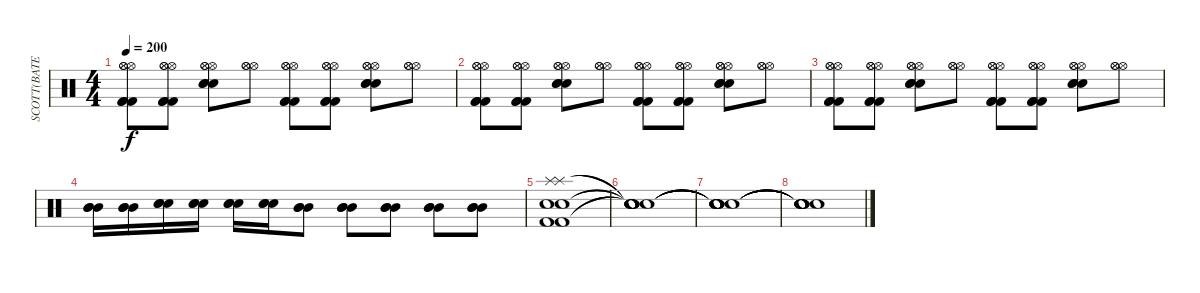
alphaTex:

\track ("SCOTT(BATERIA)" "SCOTT(BATE") {instrument percussion}
\staff {score}
\articulation defaults
\ts (4 4)
\tempo 200
\clef neutral
\ks c
("Kick (hit) 2" "Kick (hit) 2" "Kick (hit) 2" "Hi-Hat (open)" "Hi-Hat (open)" "Hi-Hat (open)").8{dy f} ("Kick (hit) 2" "Kick (hit) 2" "Kick (hit) 2" "Hi-Hat (open)" "Hi-Hat (open)" "Hi-Hat (open)").8 ("Snare (hit) 2" "Snare (hit) 2" "Snare (hit) 2" "Hi-Hat (open)" "Hi-Hat (open)" "Hi-Hat (open)").8 ("Hi-Hat (open)" "Hi-Hat (open)" "Hi-Hat (open)").8 ("Kick (hit) 2" "Kick (hit) 2" "Kick (hit) 2" "Hi-Hat (open)" "Hi-Hat (open)" "Hi-Hat (open)").8 ("Kick (hit) 2" "Kick (hit) 2" "Kick (hit) 2" "Hi-Hat (open)" "Hi-Hat (open)" "Hi-Hat (open)").8 ("Snare (hit) 2" "Snare (hit) 2" "Snare (hit) 2" "Hi-Hat (open)" "Hi-Hat (open)" "Hi-Hat (open)").8 ("Hi-Hat (open)" "Hi-Hat (open)" "Hi-Hat (open)").8 |
("Kick (hit) 2" "Kick (hit) 2" "Kick (hit) 2" "Hi-Hat (open)" "Hi-Hat (open)" "Hi-Hat (open)").8 ("Kick (hit) 2" "Kick (hit) 2" "Kick (hit) 2" "Hi-Hat (open)" "Hi-Hat (open)" "Hi-Hat (open)").8 ("Snare (hit) 2" "Snare (hit) 2" "Snare (hit) 2" "Hi-Hat (open)" "Hi-Hat (open)" "Hi-Hat (open)").8 ("Hi-Hat (open)" "Hi-Hat (open)" "Hi-Hat (open)").8 ("Kick (hit) 2" "Kick (hit) 2" "Kick (hit) 2" "Hi-Hat (open)" "Hi-Hat (open)" "Hi-Hat (open)").8 ("Kick (hit) 2" "Kick (hit) 2" "Kick (hit) 2" "Hi-Hat (open)" "Hi-Hat (open)" "Hi-Hat (open)").8 ("Snare (hit) 2" "Snare (hit) 2" "Snare (hit) 2" "Hi-Hat (open)" "Hi-Hat (open)" "Hi-Hat (open)").8 ("Hi-Hat (open)" "Hi-Hat (open)" "Hi-Hat (open)").8 |
("Kick (hit) 2" "Kick (hit) 2" "Kick (hit) 2" "Hi-Hat (open)" "Hi-Hat (open)" "Hi-Hat (open)").8 ("Kick (hit) 2" "Kick (hit) 2" "Kick (hit) 2" "Hi-Hat (open)" "Hi-Hat (open)" "Hi-Hat (open)").8 ("Snare (hit) 2" "Snare (hit) 2" "Snare (hit) 2" "Hi-Hat (open)" "Hi-Hat (open)" "Hi-Hat (open)").8 ("Hi-Hat (open)" "Hi-Hat (open)" "Hi-Hat (open)").8 ("Kick (hit) 2" "Kick (hit) 2" "Kick (hit) 2" "Hi-Hat (open)" "Hi-Hat (open)" "Hi-Hat (open)").8 ("Kick (hit) 2" "Kick (hit) 2" "Kick (hit) 2" "Hi-Hat (open)" "Hi-Hat (open)" "Hi-Hat (open)").8 ("Snare (hit) 2" "Snare (hit) 2" "Snare (hit) 2" "Hi-Hat (open)" "Hi-Hat (open)" "Hi-Hat (open)").8 ("Hi-Hat (open)" "Hi-Hat (open)" "Hi-Hat (open)").8 |
("Mid Tom (hit)" "Mid Tom (hit)" "Mid Tom (hit)").16 ("Mid Tom (hit)" "Mid Tom (hit)" "Mid Tom (hit)").16 ("Snare (hit) 2" "Snare (hit) 2" "Snare (hit) 2").16 ("Snare (hit) 2" "Snare (hit) 2" "Snare (hit) 2").16 ("Snare (hit) 2" "Snare (hit) 2" "Snare (hit) 2").16 ("Snare (hit) 2" "Snare (hit) 2" "Snare (hit) 2").16 ("Mid Tom (hit)" "Mid Tom (hit)" "Mid Tom (hit)").8 ("Mid Tom (hit)" "Mid Tom (hit)" "Mid Tom (hit)").8 ("Mid Tom (hit)" "Mid Tom (hit)" "Mid Tom (hit)").8 ("Mid Tom (hit)" "Mid Tom (hit)" "Mid Tom (hit)").8 ("Mid Tom (hit)" "Mid Tom (hit)" "Mid Tom (hit)").8 |
("Snare (hit) 2" "Snare (hit) 2" "Kick (hit) 2" "Kick (hit) 2" "Splash (hit)" "Splash (hit)").1 |
("Snare (hit)"{t} "Snare (hit)"{t} "Snare (hit)"{t} "Snare (hit)"{t} "Snare (hit)"{t} "Snare (hit)"{t}).1 |
("Snare (hit)"{t} "Snare (hit)"{t} "Snare (hit)"{t} "Snare (hit)"{t} "Snare (hit)"{t} "Snare (hit)"{t}).1 |
("Snare (hit)"{t} "Snare (hit)"{t} "Snare (hit)"{t} "Snare (hit)"{t} "Snare (hit)"{t} "Snare (hit)"{t}).1
